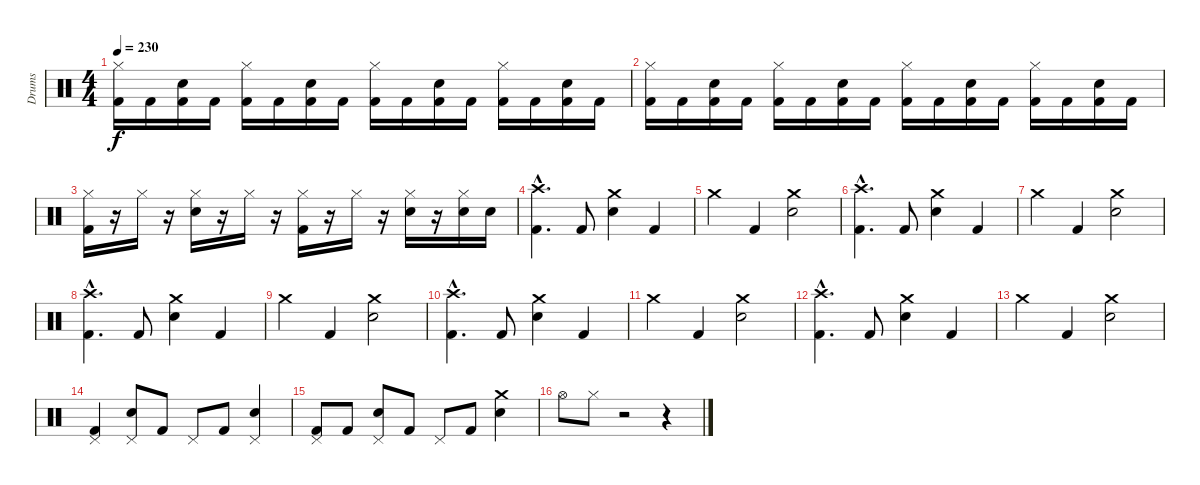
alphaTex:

\track ("Drums" "Drums") {instrument percussion}
\staff {score}
\articulation defaults
\ts (4 4)
\tempo 230
\clef neutral
\ks c
("Hi-Hat (closed)" "Kick (hit) 2").16{dy f} "Kick (hit) 2".16 ("Electric Snare (hit)" "Kick (hit) 2").16 "Kick (hit) 2".16 ("Hi-Hat (closed)" "Kick (hit) 2").16 "Kick (hit) 2".16 ("Electric Snare (hit)" "Kick (hit) 2").16 "Kick (hit) 2".16 ("Hi-Hat (closed)" "Kick (hit) 2").16 "Kick (hit) 2".16 ("Electric Snare (hit)" "Kick (hit) 2").16 "Kick (hit) 2".16 ("Hi-Hat (closed)" "Kick (hit) 2").16 "Kick (hit) 2".16 ("Electric Snare (hit)" "Kick (hit) 2").16 "Kick (hit) 2".16 |
("Hi-Hat (closed)" "Kick (hit) 2").16 "Kick (hit) 2".16 ("Electric Snare (hit)" "Kick (hit) 2").16 "Kick (hit) 2".16 ("Hi-Hat (closed)" "Kick (hit) 2").16 "Kick (hit) 2".16 ("Electric Snare (hit)" "Kick (hit) 2").16 "Kick (hit) 2".16 ("Hi-Hat (closed)" "Kick (hit) 2").16 "Kick (hit) 2".16 ("Electric Snare (hit)" "Kick (hit) 2").16 "Kick (hit) 2".16 ("Hi-Hat (closed)" "Kick (hit) 2").16 "Kick (hit) 2".16 ("Electric Snare (hit)" "Kick (hit) 2").16 "Kick (hit) 2".16 |
("Hi-Hat (closed)" "Kick (hit) 2").16 r.16 "Hi-Hat (closed)".16 r.16 ("Hi-Hat (closed)" "Electric Snare (hit)").16 r.16 "Hi-Hat (closed)".16 r.16 ("Hi-Hat (closed)" "Kick (hit) 2").16 r.16 "Hi-Hat (closed)".16 r.16 ("Hi-Hat (closed)" "Electric Snare (hit)").16 r.16 ("Hi-Hat (closed)" "Electric Snare (hit)").16 "Electric Snare (hit)".16 |
("Crash high (hit)"{hac} "Kick (hit) 2"{hac}).4{d} "Kick (hit) 2".8 ("Crash medium (hit)" "Electric Snare (hit)").4 "Kick (hit) 2".4 |
"Crash medium (hit)".4 "Kick (hit) 2".4 ("Crash medium (hit)" "Electric Snare (hit)").2 |
("Crash high (hit)"{hac} "Kick (hit) 2"{hac}).4{d} "Kick (hit) 2".8 ("Crash medium (hit)" "Electric Snare (hit)").4 "Kick (hit) 2".4 |
"Crash medium (hit)".4 "Kick (hit) 2".4 ("Crash medium (hit)" "Electric Snare (hit)").2 |
("Crash high (hit)"{hac} "Kick (hit) 2"{hac}).4{d} "Kick (hit) 2".8 ("Crash medium (hit)" "Electric Snare (hit)").4 "Kick (hit) 2".4 |
"Crash medium (hit)".4 "Kick (hit) 2".4 ("Crash medium (hit)" "Electric Snare (hit)").2 |
("Crash high (hit)"{hac} "Kick (hit) 2"{hac}).4{d} "Kick (hit) 2".8 ("Crash medium (hit)" "Electric Snare (hit)").4 "Kick (hit) 2".4 |
"Crash medium (hit)".4 "Kick (hit) 2".4 ("Crash medium (hit)" "Electric Snare (hit)").2 |
("Crash high (hit)"{hac} "Kick (hit) 2"{hac}).4{d} "Kick (hit) 2".8 ("Crash medium (hit)" "Electric Snare (hit)").4 "Kick (hit) 2".4 |
"Crash medium (hit)".4 "Kick (hit) 2".4 ("Crash medium (hit)" "Electric Snare (hit)").2 |
("Pedal Hi-Hat (hit)" "Kick (hit) 2").4 ("Pedal Hi-Hat (hit)" "Electric Snare (hit)").8 "Kick (hit) 2".8 "Pedal Hi-Hat (hit)".8 "Kick (hit) 2".8 ("Pedal Hi-Hat (hit)" "Electric Snare (hit)").4 |
("Pedal Hi-Hat (hit)" "Kick (hit) 2").8 "Kick (hit) 2".8 ("Pedal Hi-Hat (hit)" "Electric Snare (hit)").8 "Kick (hit) 2".8 "Pedal Hi-Hat (hit)".8 "Kick (hit) 2".8 ("Crash medium (hit)" "Electric Snare (hit)").4 |
"Hi-Hat (open)".8 "Hi-Hat (closed)".8 r.2 r.4
